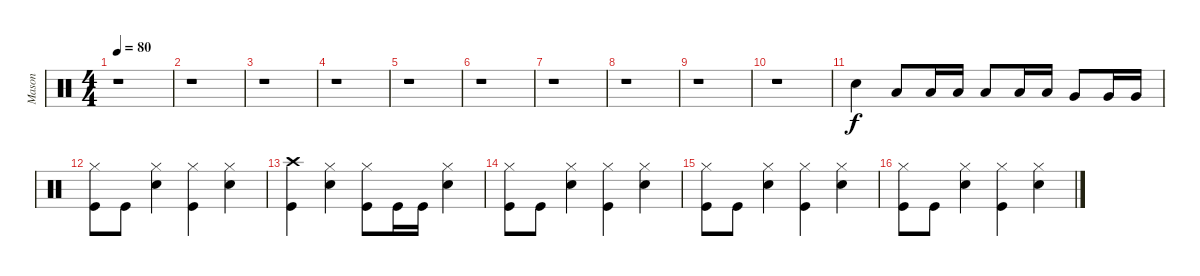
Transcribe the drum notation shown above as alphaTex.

\track ("Mason" "Mason") {instrument percussion}
\staff {score}
\articulation defaults
\ts (4 4)
\tempo 80
\clef neutral
\ks c
r.1{dy f} |
r.1 |
r.1 |
r.1 |
r.1 |
r.1 |
r.1 |
r.1 |
r.1 |
r.1 |
"Snare (hit) 2".4 "Low Tom (hit)".8 "Low Tom (hit)".16 "Low Tom (hit)".16 "Low Floor Tom (hit)".8 "Low Floor Tom (hit)".16 "Low Floor Tom (hit)".16 "Very Low Tom (hit)".8 "Very Low Tom (hit)".16 "Very Low Tom (hit)".16 |
("Kick (hit)" "Hi-Hat (closed)").8 "Kick (hit)".8 ("Snare (hit) 2" "Hi-Hat (closed)").4 ("Kick (hit)" "Hi-Hat (closed)").4 ("Snare (hit) 2" "Hi-Hat (closed)").4 |
("Kick (hit)" "Crash high (hit)").4 ("Snare (hit) 2" "Hi-Hat (closed)").4 ("Kick (hit)" "Hi-Hat (closed)").8 "Kick (hit)".16 "Kick (hit)".16 ("Snare (hit) 2" "Hi-Hat (closed)").4 |
("Kick (hit)" "Hi-Hat (closed)").8 "Kick (hit)".8 ("Snare (hit) 2" "Hi-Hat (closed)").4 ("Kick (hit)" "Hi-Hat (closed)").4 ("Snare (hit) 2" "Hi-Hat (closed)").4 |
("Kick (hit)" "Hi-Hat (closed)").8 "Kick (hit)".8 ("Snare (hit) 2" "Hi-Hat (closed)").4 ("Kick (hit)" "Hi-Hat (closed)").4 ("Snare (hit) 2" "Hi-Hat (closed)").4 |
("Kick (hit)" "Hi-Hat (closed)").8 "Kick (hit)".8 ("Snare (hit) 2" "Hi-Hat (closed)").4 ("Kick (hit)" "Hi-Hat (closed)").4 ("Snare (hit) 2" "Hi-Hat (closed)").4
